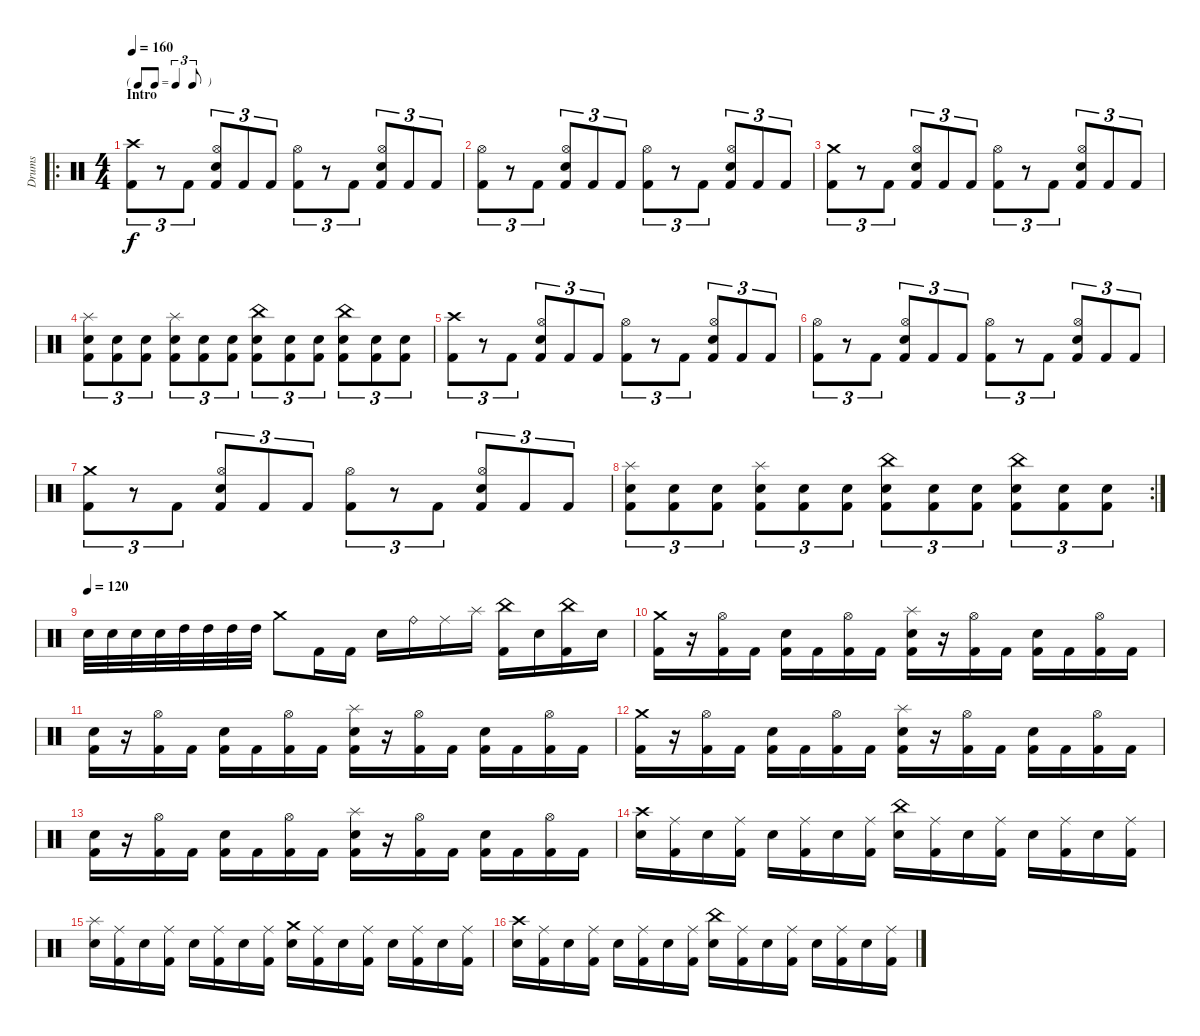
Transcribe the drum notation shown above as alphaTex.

\track ("Drums" "Drums") {instrument percussion}
\staff {score}
\articulation defaults
\ro
\ts (4 4)
\tf triplet8th
\section ("" "Intro")
\tempo 160
\clef neutral
\ks c
("Crash high (hit)" "Kick (hit) 2").8{tu (3 2) dy f} r.8{tu (3 2)} "Kick (hit) 2".8{tu (3 2)} ("Hi-Hat (open)" "Electric Snare (hit)" "Kick (hit) 2").8{tu (3 2)} "Kick (hit) 2".8{tu (3 2)} "Kick (hit) 2".8{tu (3 2)} ("Hi-Hat (open)" "Kick (hit) 2").8{tu (3 2)} r.8{tu (3 2)} "Kick (hit) 2".8{tu (3 2)} ("Hi-Hat (open)" "Electric Snare (hit)" "Kick (hit) 2").8{tu (3 2)} "Kick (hit) 2".8{tu (3 2)} "Kick (hit) 2".8{tu (3 2)} |
("Hi-Hat (open)" "Kick (hit) 2").8{tu (3 2)} r.8{tu (3 2)} "Kick (hit) 2".8{tu (3 2)} ("Hi-Hat (open)" "Electric Snare (hit)" "Kick (hit) 2").8{tu (3 2)} "Kick (hit) 2".8{tu (3 2)} "Kick (hit) 2".8{tu (3 2)} ("Hi-Hat (open)" "Kick (hit) 2").8{tu (3 2)} r.8{tu (3 2)} "Kick (hit) 2".8{tu (3 2)} ("Hi-Hat (open)" "Electric Snare (hit)" "Kick (hit) 2").8{tu (3 2)} "Kick (hit) 2".8{tu (3 2)} "Kick (hit) 2".8{tu (3 2)} |
("Crash medium (hit)" "Kick (hit) 2").8{tu (3 2)} r.8{tu (3 2)} "Kick (hit) 2".8{tu (3 2)} ("Hi-Hat (open)" "Electric Snare (hit)" "Kick (hit) 2").8{tu (3 2)} "Kick (hit) 2".8{tu (3 2)} "Kick (hit) 2".8{tu (3 2)} ("Hi-Hat (open)" "Kick (hit) 2").8{tu (3 2)} r.8{tu (3 2)} "Kick (hit) 2".8{tu (3 2)} ("Hi-Hat (open)" "Electric Snare (hit)" "Kick (hit) 2").8{tu (3 2)} "Kick (hit) 2".8{tu (3 2)} "Kick (hit) 2".8{tu (3 2)} |
("Splash (hit)" "Electric Snare (hit)" "Kick (hit) 2").8{tu (3 2)} ("Electric Snare (hit)" "Kick (hit) 2").8{tu (3 2)} ("Electric Snare (hit)" "Kick (hit) 2").8{tu (3 2)} ("Splash (hit)" "Electric Snare (hit)" "Kick (hit) 2").8{tu (3 2)} ("Electric Snare (hit)" "Kick (hit) 2").8{tu (3 2)} ("Electric Snare (hit)" "Kick (hit) 2").8{tu (3 2)} ("China (hit)" "Electric Snare (hit)" "Kick (hit) 2").8{tu (3 2)} ("Electric Snare (hit)" "Kick (hit) 2").8{tu (3 2)} ("Electric Snare (hit)" "Kick (hit) 2").8{tu (3 2)} ("China (hit)" "Electric Snare (hit)" "Kick (hit) 2").8{tu (3 2)} ("Electric Snare (hit)" "Kick (hit) 2").8{tu (3 2)} ("Electric Snare (hit)" "Kick (hit) 2").8{tu (3 2)} |
("Crash high (hit)" "Kick (hit) 2").8{tu (3 2)} r.8{tu (3 2)} "Kick (hit) 2".8{tu (3 2)} ("Hi-Hat (open)" "Electric Snare (hit)" "Kick (hit) 2").8{tu (3 2)} "Kick (hit) 2".8{tu (3 2)} "Kick (hit) 2".8{tu (3 2)} ("Hi-Hat (open)" "Kick (hit) 2").8{tu (3 2)} r.8{tu (3 2)} "Kick (hit) 2".8{tu (3 2)} ("Hi-Hat (open)" "Electric Snare (hit)" "Kick (hit) 2").8{tu (3 2)} "Kick (hit) 2".8{tu (3 2)} "Kick (hit) 2".8{tu (3 2)} |
("Hi-Hat (open)" "Kick (hit) 2").8{tu (3 2)} r.8{tu (3 2)} "Kick (hit) 2".8{tu (3 2)} ("Hi-Hat (open)" "Electric Snare (hit)" "Kick (hit) 2").8{tu (3 2)} "Kick (hit) 2".8{tu (3 2)} "Kick (hit) 2".8{tu (3 2)} ("Hi-Hat (open)" "Kick (hit) 2").8{tu (3 2)} r.8{tu (3 2)} "Kick (hit) 2".8{tu (3 2)} ("Hi-Hat (open)" "Electric Snare (hit)" "Kick (hit) 2").8{tu (3 2)} "Kick (hit) 2".8{tu (3 2)} "Kick (hit) 2".8{tu (3 2)} |
("Crash medium (hit)" "Kick (hit) 2").8{tu (3 2)} r.8{tu (3 2)} "Kick (hit) 2".8{tu (3 2)} ("Hi-Hat (open)" "Electric Snare (hit)" "Kick (hit) 2").8{tu (3 2)} "Kick (hit) 2".8{tu (3 2)} "Kick (hit) 2".8{tu (3 2)} ("Hi-Hat (open)" "Kick (hit) 2").8{tu (3 2)} r.8{tu (3 2)} "Kick (hit) 2".8{tu (3 2)} ("Hi-Hat (open)" "Electric Snare (hit)" "Kick (hit) 2").8{tu (3 2)} "Kick (hit) 2".8{tu (3 2)} "Kick (hit) 2".8{tu (3 2)} |
\rc 2
("Splash (hit)" "Electric Snare (hit)" "Kick (hit) 2").8{tu (3 2)} ("Electric Snare (hit)" "Kick (hit) 2").8{tu (3 2)} ("Electric Snare (hit)" "Kick (hit) 2").8{tu (3 2)} ("Splash (hit)" "Electric Snare (hit)" "Kick (hit) 2").8{tu (3 2)} ("Electric Snare (hit)" "Kick (hit) 2").8{tu (3 2)} ("Electric Snare (hit)" "Kick (hit) 2").8{tu (3 2)} ("China (hit)" "Electric Snare (hit)" "Kick (hit) 2").8{tu (3 2)} ("Electric Snare (hit)" "Kick (hit) 2").8{tu (3 2)} ("Electric Snare (hit)" "Kick (hit) 2").8{tu (3 2)} ("China (hit)" "Electric Snare (hit)" "Kick (hit) 2").8{tu (3 2)} ("Electric Snare (hit)" "Kick (hit) 2").8{tu (3 2)} ("Electric Snare (hit)" "Kick (hit) 2").8{tu (3 2)} |
\tempo (120)
"Electric Snare (hit)".32 "Electric Snare (hit)".32 "Electric Snare (hit)".32 "Electric Snare (hit)".32 "High Tom (hit)".32 "High Tom (hit)".32 "High Tom (hit)".32 "High Tom (hit)".32 "Crash medium (hit)".8 "Kick (hit) 2".16 "Kick (hit) 2".16 "Electric Snare (hit)".16 "Ride (bell)".16 "Ride (middle)".16 "Splash (hit)".16 ("China (hit)" "Kick (hit) 2").16 "Electric Snare (hit)".16 ("China (hit)" "Kick (hit) 2").16 "Electric Snare (hit)".16 |
("Crash medium (hit)" "Kick (hit) 2").16 r.16 ("Hi-Hat (open)" "Kick (hit) 2").16 "Kick (hit) 2".16 ("Electric Snare (hit)" "Kick (hit) 2").16 "Kick (hit) 2".16 ("Hi-Hat (open)" "Kick (hit) 2").16 "Kick (hit) 2".16 ("Splash (hit)" "Electric Snare (hit)" "Kick (hit) 2").16 r.16 ("Hi-Hat (open)" "Kick (hit) 2").16 "Kick (hit) 2".16 ("Electric Snare (hit)" "Kick (hit) 2").16 "Kick (hit) 2".16 ("Hi-Hat (open)" "Kick (hit) 2").16 "Kick (hit) 2".16 |
("Electric Snare (hit)" "Kick (hit) 2").16 r.16 ("Hi-Hat (open)" "Kick (hit) 2").16 "Kick (hit) 2".16 ("Electric Snare (hit)" "Kick (hit) 2").16 "Kick (hit) 2".16 ("Hi-Hat (open)" "Kick (hit) 2").16 "Kick (hit) 2".16 ("Splash (hit)" "Electric Snare (hit)" "Kick (hit) 2").16 r.16 ("Hi-Hat (open)" "Kick (hit) 2").16 "Kick (hit) 2".16 ("Electric Snare (hit)" "Kick (hit) 2").16 "Kick (hit) 2".16 ("Hi-Hat (open)" "Kick (hit) 2").16 "Kick (hit) 2".16 |
("Crash medium (hit)" "Kick (hit) 2").16 r.16 ("Hi-Hat (open)" "Kick (hit) 2").16 "Kick (hit) 2".16 ("Electric Snare (hit)" "Kick (hit) 2").16 "Kick (hit) 2".16 ("Hi-Hat (open)" "Kick (hit) 2").16 "Kick (hit) 2".16 ("Splash (hit)" "Electric Snare (hit)" "Kick (hit) 2").16 r.16 ("Hi-Hat (open)" "Kick (hit) 2").16 "Kick (hit) 2".16 ("Electric Snare (hit)" "Kick (hit) 2").16 "Kick (hit) 2".16 ("Hi-Hat (open)" "Kick (hit) 2").16 "Kick (hit) 2".16 |
("Electric Snare (hit)" "Kick (hit) 2").16 r.16 ("Hi-Hat (open)" "Kick (hit) 2").16 "Kick (hit) 2".16 ("Electric Snare (hit)" "Kick (hit) 2").16 "Kick (hit) 2".16 ("Hi-Hat (open)" "Kick (hit) 2").16 "Kick (hit) 2".16 ("Splash (hit)" "Electric Snare (hit)" "Kick (hit) 2").16 r.16 ("Hi-Hat (open)" "Kick (hit) 2").16 "Kick (hit) 2".16 ("Electric Snare (hit)" "Kick (hit) 2").16 "Kick (hit) 2".16 ("Hi-Hat (open)" "Kick (hit) 2").16 "Kick (hit) 2".16 |
("Crash high (hit)" "Electric Snare (hit)").16 ("Ride (middle)" "Kick (hit) 2").16 "Electric Snare (hit)".16 ("Ride (middle)" "Kick (hit) 2").16 "Electric Snare (hit)".16 ("Ride (middle)" "Kick (hit) 2").16 "Electric Snare (hit)".16 ("Ride (middle)" "Kick (hit) 2").16 ("China (hit)" "Electric Snare (hit)").16 ("Ride (middle)" "Kick (hit) 2").16 "Electric Snare (hit)".16 ("Ride (middle)" "Kick (hit) 2").16 "Electric Snare (hit)".16 ("Ride (middle)" "Kick (hit) 2").16 "Electric Snare (hit)".16 ("Ride (middle)" "Kick (hit) 2").16 |
("Splash (hit)" "Electric Snare (hit)").16 ("Ride (middle)" "Kick (hit) 2").16 "Electric Snare (hit)".16 ("Ride (middle)" "Kick (hit) 2").16 "Electric Snare (hit)".16 ("Ride (middle)" "Kick (hit) 2").16 "Electric Snare (hit)".16 ("Ride (middle)" "Kick (hit) 2").16 ("Crash medium (hit)" "Electric Snare (hit)").16 ("Ride (middle)" "Kick (hit) 2").16 "Electric Snare (hit)".16 ("Ride (middle)" "Kick (hit) 2").16 "Electric Snare (hit)".16 ("Ride (middle)" "Kick (hit) 2").16 "Electric Snare (hit)".16 ("Ride (middle)" "Kick (hit) 2").16 |
("Crash high (hit)" "Electric Snare (hit)").16 ("Ride (middle)" "Kick (hit) 2").16 "Electric Snare (hit)".16 ("Ride (middle)" "Kick (hit) 2").16 "Electric Snare (hit)".16 ("Ride (middle)" "Kick (hit) 2").16 "Electric Snare (hit)".16 ("Ride (middle)" "Kick (hit) 2").16 ("China (hit)" "Electric Snare (hit)").16 ("Ride (middle)" "Kick (hit) 2").16 "Electric Snare (hit)".16 ("Ride (middle)" "Kick (hit) 2").16 "Electric Snare (hit)".16 ("Ride (middle)" "Kick (hit) 2").16 "Electric Snare (hit)".16 ("Ride (middle)" "Kick (hit) 2").16
